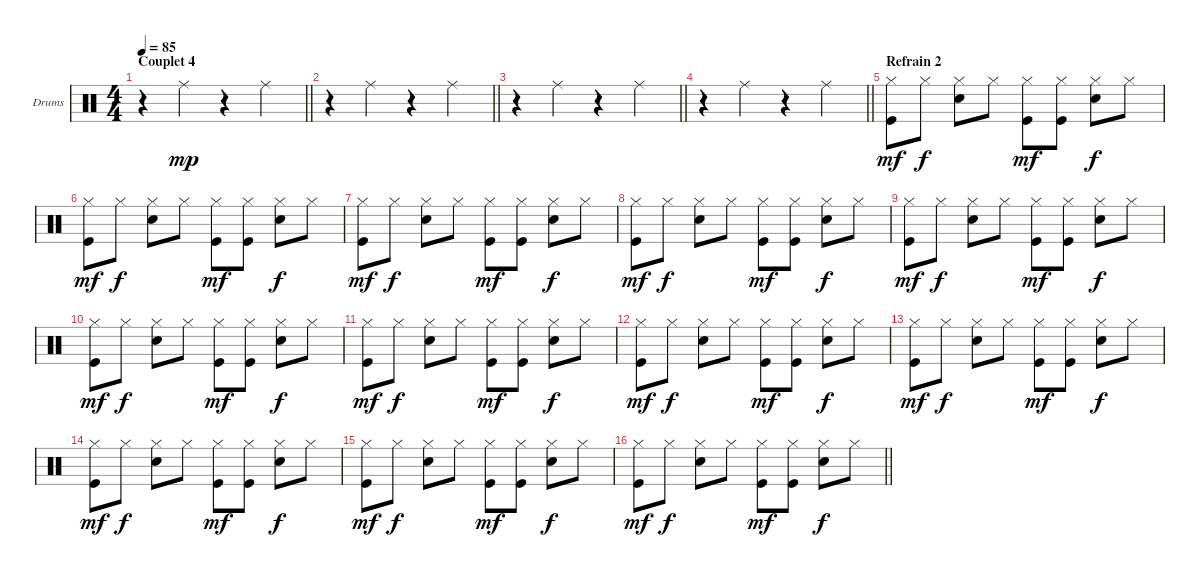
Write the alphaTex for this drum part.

\bracketExtendMode groupsimilarinstruments
\firstSystemTrackNameOrientation horizontal
\otherSystemsTrackNameOrientation horizontal
\chordDiagramsInScore
\track ("Drumkit" "Drums") {instrument percussion}
\staff {score}
\articulation defaults
\ts (4 4)
\section ("" "Couplet 4")
\tempo 85
\clef neutral
\barLineRight lightlight
\ks c
r.4{dy mp} "Ride (middle)".4 r.4 "Ride (middle)".4 |
\barLineRight lightlight
r.4 "Ride (middle)".4 r.4 "Ride (middle)".4 |
\barLineRight lightlight
r.4 "Ride (middle)".4 r.4 "Ride (middle)".4 |
\barLineRight lightlight
r.4 "Ride (middle)".4 r.4 "Ride (middle)".4 |
\section ("" "Refrain 2")
("Hi-Hat (closed)" "Kick (hit)").8{dy mf} "Hi-Hat (closed)".8{dy f} ("Hi-Hat (closed)" "Snare (hit) 2").8 "Hi-Hat (closed)".8 ("Hi-Hat (closed)" "Kick (hit)").8{dy mf} ("Hi-Hat (closed)" "Kick (hit)").8 ("Hi-Hat (closed)" "Snare (hit) 2").8{dy f} "Hi-Hat (closed)".8 |
("Hi-Hat (closed)" "Kick (hit)").8{dy mf} "Hi-Hat (closed)".8{dy f} ("Hi-Hat (closed)" "Snare (hit) 2").8 "Hi-Hat (closed)".8 ("Hi-Hat (closed)" "Kick (hit)").8{dy mf} ("Hi-Hat (closed)" "Kick (hit)").8 ("Hi-Hat (closed)" "Snare (hit) 2").8{dy f} "Hi-Hat (closed)".8 |
("Hi-Hat (closed)" "Kick (hit)").8{dy mf} "Hi-Hat (closed)".8{dy f} ("Hi-Hat (closed)" "Snare (hit) 2").8 "Hi-Hat (closed)".8 ("Hi-Hat (closed)" "Kick (hit)").8{dy mf} ("Hi-Hat (closed)" "Kick (hit)").8 ("Hi-Hat (closed)" "Snare (hit) 2").8{dy f} "Hi-Hat (closed)".8 |
("Hi-Hat (closed)" "Kick (hit)").8{dy mf} "Hi-Hat (closed)".8{dy f} ("Hi-Hat (closed)" "Snare (hit) 2").8 "Hi-Hat (closed)".8 ("Hi-Hat (closed)" "Kick (hit)").8{dy mf} ("Hi-Hat (closed)" "Kick (hit)").8 ("Hi-Hat (closed)" "Snare (hit) 2").8{dy f} "Hi-Hat (closed)".8 |
("Hi-Hat (closed)" "Kick (hit)").8{dy mf} "Hi-Hat (closed)".8{dy f} ("Hi-Hat (closed)" "Snare (hit) 2").8 "Hi-Hat (closed)".8 ("Hi-Hat (closed)" "Kick (hit)").8{dy mf} ("Hi-Hat (closed)" "Kick (hit)").8 ("Hi-Hat (closed)" "Snare (hit) 2").8{dy f} "Hi-Hat (closed)".8 |
("Hi-Hat (closed)" "Kick (hit)").8{dy mf} "Hi-Hat (closed)".8{dy f} ("Hi-Hat (closed)" "Snare (hit) 2").8 "Hi-Hat (closed)".8 ("Hi-Hat (closed)" "Kick (hit)").8{dy mf} ("Hi-Hat (closed)" "Kick (hit)").8 ("Hi-Hat (closed)" "Snare (hit) 2").8{dy f} "Hi-Hat (closed)".8 |
("Hi-Hat (closed)" "Kick (hit)").8{dy mf} "Hi-Hat (closed)".8{dy f} ("Hi-Hat (closed)" "Snare (hit) 2").8 "Hi-Hat (closed)".8 ("Hi-Hat (closed)" "Kick (hit)").8{dy mf} ("Hi-Hat (closed)" "Kick (hit)").8 ("Hi-Hat (closed)" "Snare (hit) 2").8{dy f} "Hi-Hat (closed)".8 |
("Hi-Hat (closed)" "Kick (hit)").8{dy mf} "Hi-Hat (closed)".8{dy f} ("Hi-Hat (closed)" "Snare (hit) 2").8 "Hi-Hat (closed)".8 ("Hi-Hat (closed)" "Kick (hit)").8{dy mf} ("Hi-Hat (closed)" "Kick (hit)").8 ("Hi-Hat (closed)" "Snare (hit) 2").8{dy f} "Hi-Hat (closed)".8 |
("Hi-Hat (closed)" "Kick (hit)").8{dy mf} "Hi-Hat (closed)".8{dy f} ("Hi-Hat (closed)" "Snare (hit) 2").8 "Hi-Hat (closed)".8 ("Hi-Hat (closed)" "Kick (hit)").8{dy mf} ("Hi-Hat (closed)" "Kick (hit)").8 ("Hi-Hat (closed)" "Snare (hit) 2").8{dy f} "Hi-Hat (closed)".8 |
("Hi-Hat (closed)" "Kick (hit)").8{dy mf} "Hi-Hat (closed)".8{dy f} ("Hi-Hat (closed)" "Snare (hit) 2").8 "Hi-Hat (closed)".8 ("Hi-Hat (closed)" "Kick (hit)").8{dy mf} ("Hi-Hat (closed)" "Kick (hit)").8 ("Hi-Hat (closed)" "Snare (hit) 2").8{dy f} "Hi-Hat (closed)".8 |
("Hi-Hat (closed)" "Kick (hit)").8{dy mf} "Hi-Hat (closed)".8{dy f} ("Hi-Hat (closed)" "Snare (hit) 2").8 "Hi-Hat (closed)".8 ("Hi-Hat (closed)" "Kick (hit)").8{dy mf} ("Hi-Hat (closed)" "Kick (hit)").8 ("Hi-Hat (closed)" "Snare (hit) 2").8{dy f} "Hi-Hat (closed)".8 |
\barLineRight lightlight
("Hi-Hat (closed)" "Kick (hit)").8{dy mf} "Hi-Hat (closed)".8{dy f} ("Hi-Hat (closed)" "Snare (hit) 2").8 "Hi-Hat (closed)".8 ("Hi-Hat (closed)" "Kick (hit)").8{dy mf} ("Hi-Hat (closed)" "Kick (hit)").8 ("Hi-Hat (closed)" "Snare (hit) 2").8{dy f} "Hi-Hat (closed)".8
